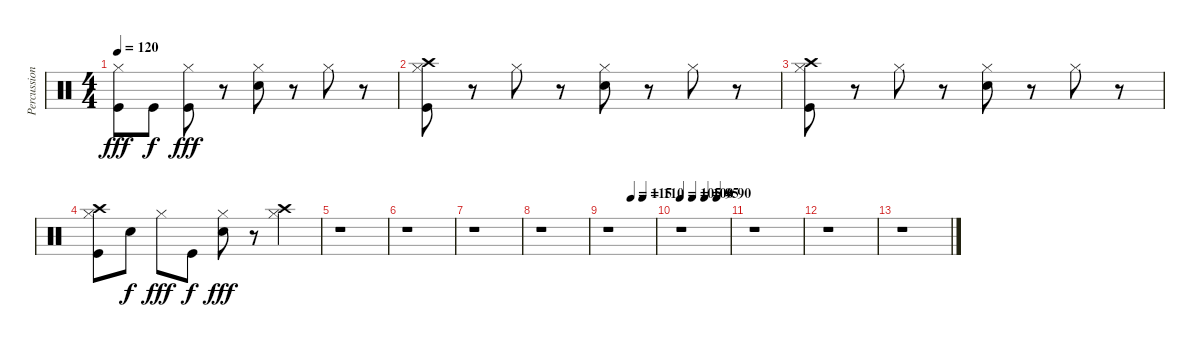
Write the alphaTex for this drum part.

\track ("Percussion" "Percussion") {instrument percussion}
\staff {score}
\articulation defaults
\ts (4 4)
\tempo 120
\clef neutral
\ks c
("Hi-Hat (closed)" "Kick (hit)").8{dy fff} "Kick (hit)".8{dy f} ("Hi-Hat (closed)" "Kick (hit)").8{dy fff} r.8 ("Hi-Hat (closed)" "Snare (hit) 2").8 r.8 "Hi-Hat (closed)".8 r.8 |
("Hi-Hat (closed)" "Crash high (hit)" "Kick (hit)").8 r.8 "Hi-Hat (closed)".8 r.8 ("Hi-Hat (closed)" "Snare (hit) 2").8 r.8 "Hi-Hat (closed)".8 r.8 |
("Hi-Hat (closed)" "Crash high (hit)" "Kick (hit)").8 r.8 "Hi-Hat (closed)".8 r.8 ("Hi-Hat (closed)" "Snare (hit) 2").8 r.8 "Hi-Hat (closed)".8 r.8 |
("Hi-Hat (closed)" "Crash high (hit)" "Kick (hit)").8 "Snare (hit) 2".8{dy f} "Hi-Hat (closed)".8{dy fff} "Kick (hit)".8{dy f} ("Hi-Hat (closed)" "Snare (hit) 2").8{dy fff} r.8 ("Hi-Hat (closed)" "Crash high (hit)").4 |
r.1 |
r.1 |
r.1 |
r.1 |
\tempo (115 0.5)
\tempo (110 0.75)
r.1 |
\tempo 105
\tempo (100 0.25)
\tempo (95 0.5)
\tempo (90 0.75)
r.1 |
r.1 |
r.1 |
r.1
